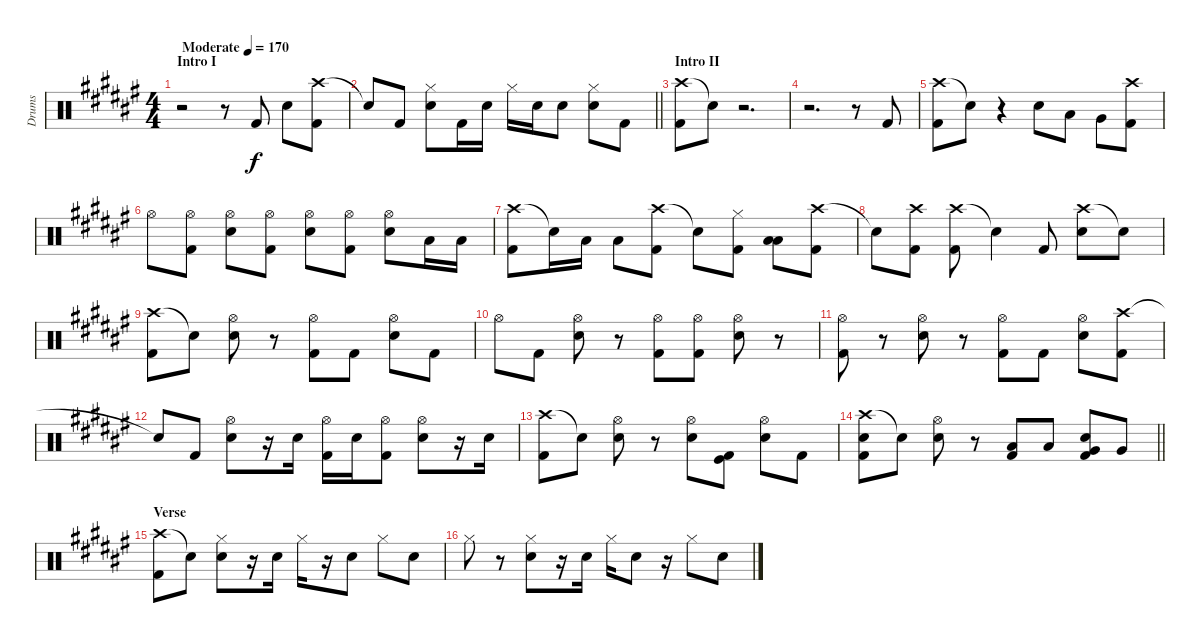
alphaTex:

\track ("Drums" "Drums") {instrument percussion}
\staff {score}
\articulation defaults
\ts (4 4)
\section ("" "Intro I")
\tempo (170 "Moderate")
\clef neutral
\ks f#
r.2{dy f} r.8 "Kick (hit) 2".8 "Snare (hit) 2".8 ("Crash high (hit)" "Kick (hit) 2").8 |
\barLineRight lightlight "Snare (hit)"{t}.8 "Kick (hit) 2".8
("Hi-Hat (closed)" "Snare (hit) 2").8 "Kick (hit) 2".16 "Snare (hit) 2".16 "Hi-Hat (closed)".16 "Snare (hit) 2".16 "Snare (hit) 2".8 ("Hi-Hat (closed)" "Snare (hit) 2").8 "Kick (hit) 2".8 |
\section ("" "Intro II")
("Crash high (hit)" "Kick (hit) 2").8 "Snare (hit)"{t}.8 r.2{d} |
r.2{d} r.8 "Kick (hit) 2".8 |
("Crash high (hit)" "Kick (hit) 2").8 "Snare (hit)"{t}.8 r.4 "Snare (hit) 2".8 "Low Tom (hit)".8 "Very Low Tom (hit)".8 ("Crash high (hit)" "Kick (hit) 2").8 |
"Hi-Hat (open)".8 ("Hi-Hat (open)" "Kick (hit) 2").8 ("Hi-Hat (open)" "Snare (hit) 2").8 ("Hi-Hat (open)" "Kick (hit) 2").8 ("Hi-Hat (open)" "Snare (hit) 2").8 ("Hi-Hat (open)" "Kick (hit) 2").8 ("Hi-Hat (open)" "Snare (hit) 2").8 "Low Tom (hit)".16 "Low Tom (hit)".16 |
("Crash high (hit)" "Kick (hit) 2").8 "Snare (hit)"{t}.16 "Low Tom (hit)".16 "Low Tom (hit)".8 ("Crash high (hit)" "Kick (hit) 2").8 "Snare (hit)"{t}.8 ("Hi-Hat (closed)" "Kick (hit) 2").8 ("Low Tom (hit)" "Low Tom (hit)").8 ("Crash high (hit)" "Kick (hit) 2").8 |
"Snare (hit)"{t}.8 ("Crash high (hit)" "Kick (hit) 2").8 ("Crash high (hit)" "Kick (hit) 2").8 "Snare (hit)"{t}.4 "Kick (hit) 2".8 ("Crash high (hit)" "Snare (hit) 2").8 "Snare (hit)"{t}.8 |
("Crash high (hit)" "Kick (hit) 2").8 "Snare (hit)"{t}.8 ("Hi-Hat (open)" "Snare (hit) 2").8 r.8 ("Hi-Hat (open)" "Kick (hit) 2").8 "Kick (hit) 2".8 ("Hi-Hat (open)" "Snare (hit) 2").8 "Kick (hit) 2".8 |
"Hi-Hat (open)".8 "Kick (hit) 2".8 ("Hi-Hat (open)" "Snare (hit) 2").8 r.8 ("Hi-Hat (open)" "Kick (hit) 2").8 ("Hi-Hat (open)" "Kick (hit) 2").8 ("Hi-Hat (open)" "Snare (hit) 2").8 r.8 |
("Hi-Hat (open)" "Kick (hit) 2").8 r.8 ("Hi-Hat (open)" "Snare (hit) 2").8 r.8 ("Hi-Hat (open)" "Kick (hit) 2").8 "Kick (hit) 2".8 ("Hi-Hat (open)" "Snare (hit) 2").8 ("Crash high (hit)" "Kick (hit) 2").8 |
"Snare (hit)"{t}.8 "Kick (hit) 2".8 ("Hi-Hat (open)" "Snare (hit) 2").8 r.16 "Snare (hit) 2".16 ("Hi-Hat (open)" "Kick (hit) 2").16 "Snare (hit) 2".16 ("Hi-Hat (open)" "Kick (hit) 2").8 ("Hi-Hat (open)" "Snare (hit) 2").8 r.16 "Snare (hit) 2".16 |
("Crash high (hit)" "Kick (hit) 2").8 "Snare (hit)"{t}.8 ("Hi-Hat (open)" "Snare (hit) 2").8 r.8 ("Hi-Hat (open)" "Snare (hit) 2").8 ("Kick (hit)" "Kick (hit) 2").8 ("Hi-Hat (open)" "Snare (hit) 2").8 "Kick (hit) 2".8 |
\barLineRight lightlight
("Crash high (hit)" "Snare (hit) 2" "Kick (hit) 2").8 "Snare (hit)"{t}.8 ("Hi-Hat (open)" "Snare (hit) 2").8 r.8 ("Low Tom (hit)" "Kick (hit) 2").8 "Low Tom (hit)".8 ("Snare (hit) 2" "Very Low Tom (hit)" "Kick (hit) 2").8 "Very Low Tom (hit)".8 |
\section ("" "Verse")
("Crash high (hit)" "Kick (hit) 2").8 "Snare (hit)"{t}.8 ("Hi-Hat (closed)" "Snare (hit) 2").8 r.16 "Snare (hit) 2".16 "Hi-Hat (closed)".16 r.16 "Snare (hit) 2".8 "Hi-Hat (closed)".8 "Snare (hit) 2".8 |
"Hi-Hat (closed)".8 r.8 ("Hi-Hat (closed)" "Snare (hit) 2").8 r.16 "Snare (hit) 2".16 "Hi-Hat (closed)".16 "Snare (hit) 2".8 r.16 "Hi-Hat (closed)".8 "Snare (hit) 2".8
